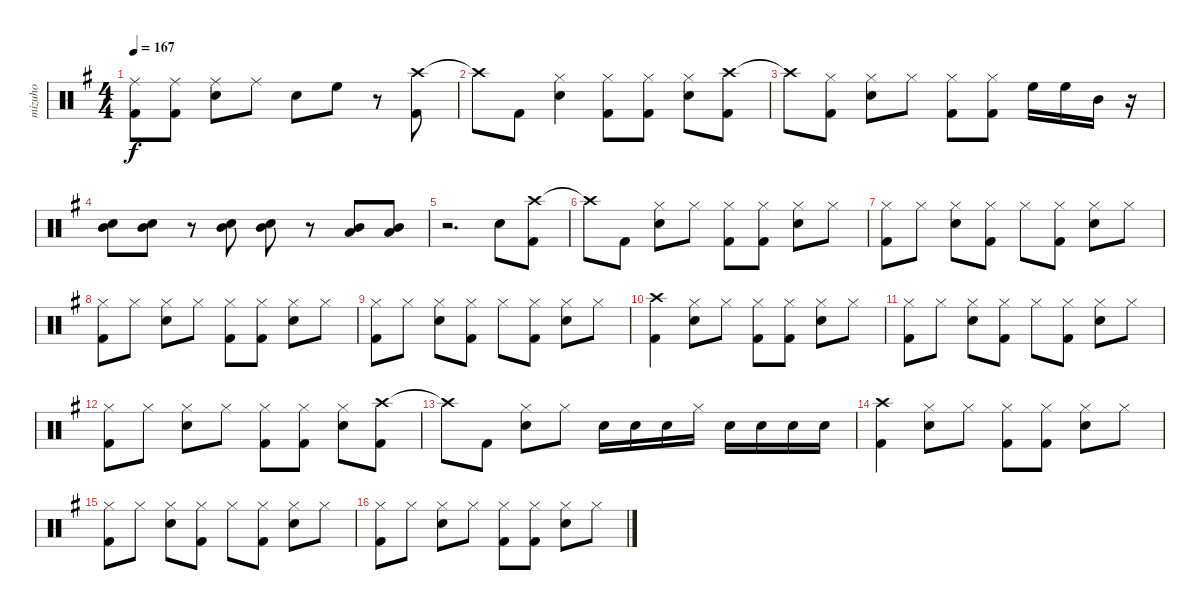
\track ("mizuho" "mizuho") {instrument percussion}
\staff {score}
\articulation defaults
\ts (4 4)
\tempo 167
\clef neutral
\ks eminor
("Ride (middle)" "Kick (hit) 2").8{dy f} ("Ride (middle)" "Kick (hit) 2").8 ("Ride (middle)" "Electric Snare (hit)").8 "Ride (middle)".8 "Electric Snare (hit)".8 "High Floor Tom (hit)".8 r.8 ("Crash high (hit)" "Kick (hit) 2").8 |
"Crash high (hit)"{t}.8 "Kick (hit) 2".8 ("Hi-Hat (closed)" "Electric Snare (hit)").4 ("Hi-Hat (closed)" "Kick (hit) 2").8 ("Hi-Hat (closed)" "Kick (hit) 2").8 ("Hi-Hat (closed)" "Electric Snare (hit)").8 ("Crash high (hit)" "Kick (hit) 2").8 |
"Crash high (hit)"{t}.8 ("Hi-Hat (closed)" "Kick (hit) 2").8 ("Hi-Hat (closed)" "Electric Snare (hit)").8 "Hi-Hat (closed)".8 ("Hi-Hat (closed)" "Kick (hit) 2").8 ("Hi-Hat (closed)" "Kick (hit) 2").8 "High Floor Tom (hit)".16 "High Floor Tom (hit)".16 "Mid Tom (hit)".16 r.16 |
("Mid Tom (hit)" "Snare (hit) 2").8 ("Mid Tom (hit)" "Snare (hit) 2").8 r.8 ("Mid Tom (hit)" "Snare (hit) 2").8 ("Mid Tom (hit)" "Snare (hit) 2").8 r.8 ("Mid Tom (hit)" "Low Floor Tom (hit)").8 ("Mid Tom (hit)" "Low Floor Tom (hit)").8 |
r.2{d} "Electric Snare (hit)".8 ("Crash high (hit)" "Kick (hit) 2").8 |
"Crash high (hit)"{t}.8 "Kick (hit) 2".8 ("Hi-Hat (closed)" "Electric Snare (hit)").8 "Hi-Hat (closed)".8 ("Hi-Hat (closed)" "Kick (hit) 2").8 ("Hi-Hat (closed)" "Kick (hit) 2").8 ("Hi-Hat (closed)" "Electric Snare (hit)").8 "Hi-Hat (closed)".8 |
("Hi-Hat (closed)" "Kick (hit) 2").8 "Hi-Hat (closed)".8 ("Hi-Hat (closed)" "Electric Snare (hit)").8 ("Hi-Hat (closed)" "Kick (hit) 2").8 "Hi-Hat (closed)".8 ("Hi-Hat (closed)" "Kick (hit) 2").8 ("Hi-Hat (closed)" "Electric Snare (hit)").8 "Hi-Hat (closed)".8 |
("Hi-Hat (closed)" "Kick (hit) 2").8 "Hi-Hat (closed)".8 ("Hi-Hat (closed)" "Electric Snare (hit)").8 "Hi-Hat (closed)".8 ("Hi-Hat (closed)" "Kick (hit) 2").8 ("Hi-Hat (closed)" "Kick (hit) 2").8 ("Hi-Hat (closed)" "Electric Snare (hit)").8 "Hi-Hat (closed)".8 |
("Hi-Hat (closed)" "Kick (hit) 2").8 "Hi-Hat (closed)".8 ("Hi-Hat (closed)" "Electric Snare (hit)").8 ("Hi-Hat (closed)" "Kick (hit) 2").8 "Hi-Hat (closed)".8 ("Hi-Hat (closed)" "Kick (hit) 2").8 ("Hi-Hat (closed)" "Electric Snare (hit)").8 "Hi-Hat (closed)".8 |
("Crash high (hit)" "Kick (hit) 2").4 ("Hi-Hat (closed)" "Electric Snare (hit)").8 "Hi-Hat (closed)".8 ("Hi-Hat (closed)" "Kick (hit) 2").8 ("Hi-Hat (closed)" "Kick (hit) 2").8 ("Hi-Hat (closed)" "Electric Snare (hit)").8 "Hi-Hat (closed)".8 |
("Hi-Hat (closed)" "Kick (hit) 2").8 "Hi-Hat (closed)".8 ("Hi-Hat (closed)" "Electric Snare (hit)").8 ("Hi-Hat (closed)" "Kick (hit) 2").8 "Hi-Hat (closed)".8 ("Hi-Hat (closed)" "Kick (hit) 2").8 ("Hi-Hat (closed)" "Electric Snare (hit)").8 "Hi-Hat (closed)".8 |
("Hi-Hat (closed)" "Kick (hit) 2").8 "Hi-Hat (closed)".8 ("Hi-Hat (closed)" "Electric Snare (hit)").8 "Hi-Hat (closed)".8 ("Hi-Hat (closed)" "Kick (hit) 2").8 ("Hi-Hat (closed)" "Kick (hit) 2").8 ("Hi-Hat (closed)" "Electric Snare (hit)").8 ("Crash high (hit)" "Kick (hit) 2").8 |
"Crash high (hit)"{t}.8 "Kick (hit) 2".8 ("Hi-Hat (closed)" "Electric Snare (hit)").8 "Hi-Hat (closed)".8 "Snare (hit) 2".16 "Snare (hit) 2".16 "Snare (hit) 2".16 "Hi-Hat (closed)".16 "Snare (hit) 2".16 "Snare (hit) 2".16 "Snare (hit) 2".16 "Snare (hit) 2".16 |
("Crash high (hit)" "Kick (hit) 2").4 ("Hi-Hat (closed)" "Electric Snare (hit)").8 "Hi-Hat (closed)".8 ("Hi-Hat (closed)" "Kick (hit) 2").8 ("Hi-Hat (closed)" "Kick (hit) 2").8 ("Hi-Hat (closed)" "Electric Snare (hit)").8 "Hi-Hat (closed)".8 |
("Hi-Hat (closed)" "Kick (hit) 2").8 "Hi-Hat (closed)".8 ("Hi-Hat (closed)" "Electric Snare (hit)").8 ("Hi-Hat (closed)" "Kick (hit) 2").8 "Hi-Hat (closed)".8 ("Hi-Hat (closed)" "Kick (hit) 2").8 ("Hi-Hat (closed)" "Electric Snare (hit)").8 "Hi-Hat (closed)".8 |
("Hi-Hat (closed)" "Kick (hit) 2").8 "Hi-Hat (closed)".8 ("Hi-Hat (closed)" "Electric Snare (hit)").8 "Hi-Hat (closed)".8 ("Hi-Hat (closed)" "Kick (hit) 2").8 ("Hi-Hat (closed)" "Kick (hit) 2").8 ("Hi-Hat (closed)" "Electric Snare (hit)").8 "Hi-Hat (closed)".8
